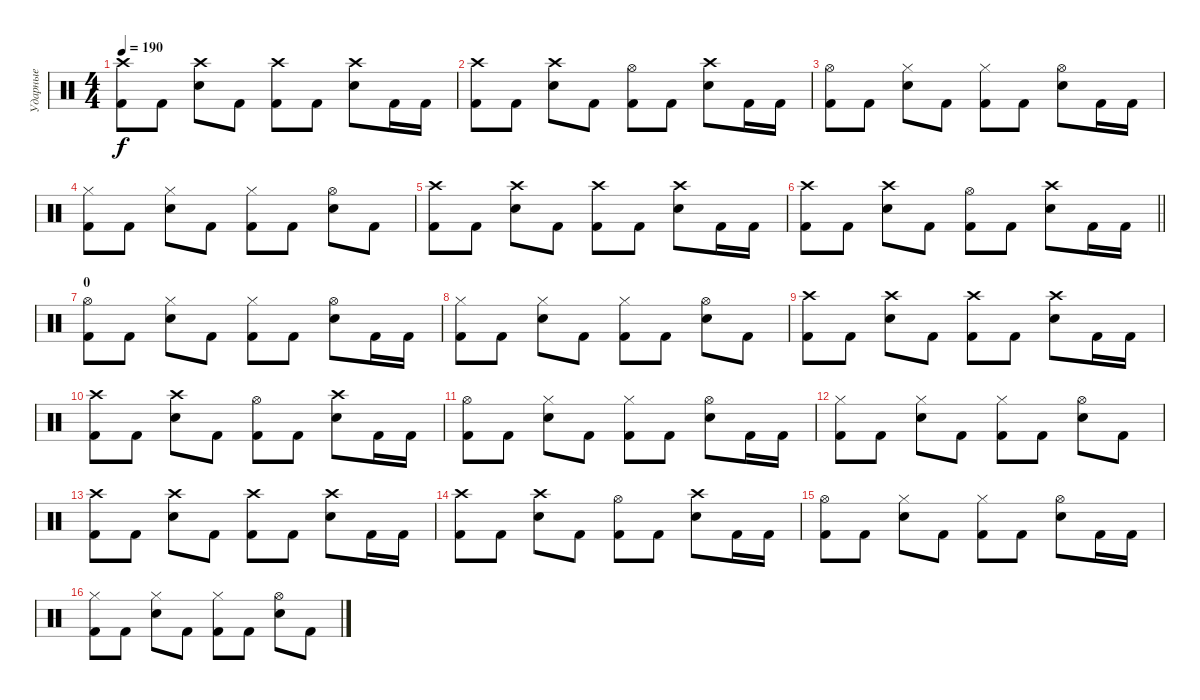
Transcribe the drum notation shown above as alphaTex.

\track ("Ударные" "Ударные") {instrument percussion}
\staff {score}
\articulation defaults
\ts (4 4)
\tempo 190
\clef neutral
\ks c
("Crash high (hit)" "Kick (hit) 2").8{dy f} "Kick (hit) 2".8 ("Crash high (hit)" "Snare (hit) 2").8 "Kick (hit) 2".8 ("Crash high (hit)" "Kick (hit) 2").8 "Kick (hit) 2".8 ("Crash high (hit)" "Snare (hit) 2").8 "Kick (hit) 2".16 "Kick (hit) 2".16 |
("Crash high (hit)" "Kick (hit) 2").8 "Kick (hit) 2".8 ("Crash high (hit)" "Snare (hit) 2").8 "Kick (hit) 2".8 ("Hi-Hat (open)" "Kick (hit) 2").8 "Kick (hit) 2".8 ("Crash high (hit)" "Snare (hit) 2").8 "Kick (hit) 2".16 "Kick (hit) 2".16 |
("Hi-Hat (open)" "Kick (hit) 2").8 "Kick (hit) 2".8 ("Hi-Hat (closed)" "Snare (hit) 2").8 "Kick (hit) 2".8 ("Hi-Hat (closed)" "Kick (hit) 2").8 "Kick (hit) 2".8 ("Hi-Hat (open)" "Snare (hit) 2").8 "Kick (hit) 2".16 "Kick (hit) 2".16 |
("Hi-Hat (closed)" "Kick (hit) 2").8 "Kick (hit) 2".8 ("Hi-Hat (closed)" "Snare (hit) 2").8 "Kick (hit) 2".8 ("Hi-Hat (closed)" "Kick (hit) 2").8 "Kick (hit) 2".8 ("Hi-Hat (open)" "Snare (hit) 2").8 "Kick (hit) 2".8 |
("Crash high (hit)" "Kick (hit) 2").8 "Kick (hit) 2".8 ("Crash high (hit)" "Snare (hit) 2").8 "Kick (hit) 2".8 ("Crash high (hit)" "Kick (hit) 2").8 "Kick (hit) 2".8 ("Crash high (hit)" "Snare (hit) 2").8 "Kick (hit) 2".16 "Kick (hit) 2".16 |
\barLineRight lightlight
("Crash high (hit)" "Kick (hit) 2").8 "Kick (hit) 2".8 ("Crash high (hit)" "Snare (hit) 2").8 "Kick (hit) 2".8 ("Hi-Hat (open)" "Kick (hit) 2").8 "Kick (hit) 2".8 ("Crash high (hit)" "Snare (hit) 2").8 "Kick (hit) 2".16 "Kick (hit) 2".16 |
\section ("" "0")
("Hi-Hat (open)" "Kick (hit) 2").8 "Kick (hit) 2".8 ("Hi-Hat (closed)" "Snare (hit) 2").8 "Kick (hit) 2".8 ("Hi-Hat (closed)" "Kick (hit) 2").8 "Kick (hit) 2".8 ("Hi-Hat (open)" "Snare (hit) 2").8 "Kick (hit) 2".16 "Kick (hit) 2".16 |
("Hi-Hat (closed)" "Kick (hit) 2").8 "Kick (hit) 2".8 ("Hi-Hat (closed)" "Snare (hit) 2").8 "Kick (hit) 2".8 ("Hi-Hat (closed)" "Kick (hit) 2").8 "Kick (hit) 2".8 ("Hi-Hat (open)" "Snare (hit) 2").8 "Kick (hit) 2".8 |
("Crash high (hit)" "Kick (hit) 2").8 "Kick (hit) 2".8 ("Crash high (hit)" "Snare (hit) 2").8 "Kick (hit) 2".8 ("Crash high (hit)" "Kick (hit) 2").8 "Kick (hit) 2".8 ("Crash high (hit)" "Snare (hit) 2").8 "Kick (hit) 2".16 "Kick (hit) 2".16 |
("Crash high (hit)" "Kick (hit) 2").8 "Kick (hit) 2".8 ("Crash high (hit)" "Snare (hit) 2").8 "Kick (hit) 2".8 ("Hi-Hat (open)" "Kick (hit) 2").8 "Kick (hit) 2".8 ("Crash high (hit)" "Snare (hit) 2").8 "Kick (hit) 2".16 "Kick (hit) 2".16 |
("Hi-Hat (open)" "Kick (hit) 2").8 "Kick (hit) 2".8 ("Hi-Hat (closed)" "Snare (hit) 2").8 "Kick (hit) 2".8 ("Hi-Hat (closed)" "Kick (hit) 2").8 "Kick (hit) 2".8 ("Hi-Hat (open)" "Snare (hit) 2").8 "Kick (hit) 2".16 "Kick (hit) 2".16 |
("Hi-Hat (closed)" "Kick (hit) 2").8 "Kick (hit) 2".8 ("Hi-Hat (closed)" "Snare (hit) 2").8 "Kick (hit) 2".8 ("Hi-Hat (closed)" "Kick (hit) 2").8 "Kick (hit) 2".8 ("Hi-Hat (open)" "Snare (hit) 2").8 "Kick (hit) 2".8 |
("Crash high (hit)" "Kick (hit) 2").8 "Kick (hit) 2".8 ("Crash high (hit)" "Snare (hit) 2").8 "Kick (hit) 2".8 ("Crash high (hit)" "Kick (hit) 2").8 "Kick (hit) 2".8 ("Crash high (hit)" "Snare (hit) 2").8 "Kick (hit) 2".16 "Kick (hit) 2".16 |
("Crash high (hit)" "Kick (hit) 2").8 "Kick (hit) 2".8 ("Crash high (hit)" "Snare (hit) 2").8 "Kick (hit) 2".8 ("Hi-Hat (open)" "Kick (hit) 2").8 "Kick (hit) 2".8 ("Crash high (hit)" "Snare (hit) 2").8 "Kick (hit) 2".16 "Kick (hit) 2".16 |
("Hi-Hat (open)" "Kick (hit) 2").8 "Kick (hit) 2".8 ("Hi-Hat (closed)" "Snare (hit) 2").8 "Kick (hit) 2".8 ("Hi-Hat (closed)" "Kick (hit) 2").8 "Kick (hit) 2".8 ("Hi-Hat (open)" "Snare (hit) 2").8 "Kick (hit) 2".16 "Kick (hit) 2".16 |
("Hi-Hat (closed)" "Kick (hit) 2").8 "Kick (hit) 2".8 ("Hi-Hat (closed)" "Snare (hit) 2").8 "Kick (hit) 2".8 ("Hi-Hat (closed)" "Kick (hit) 2").8 "Kick (hit) 2".8 ("Hi-Hat (open)" "Snare (hit) 2").8 "Kick (hit) 2".8
